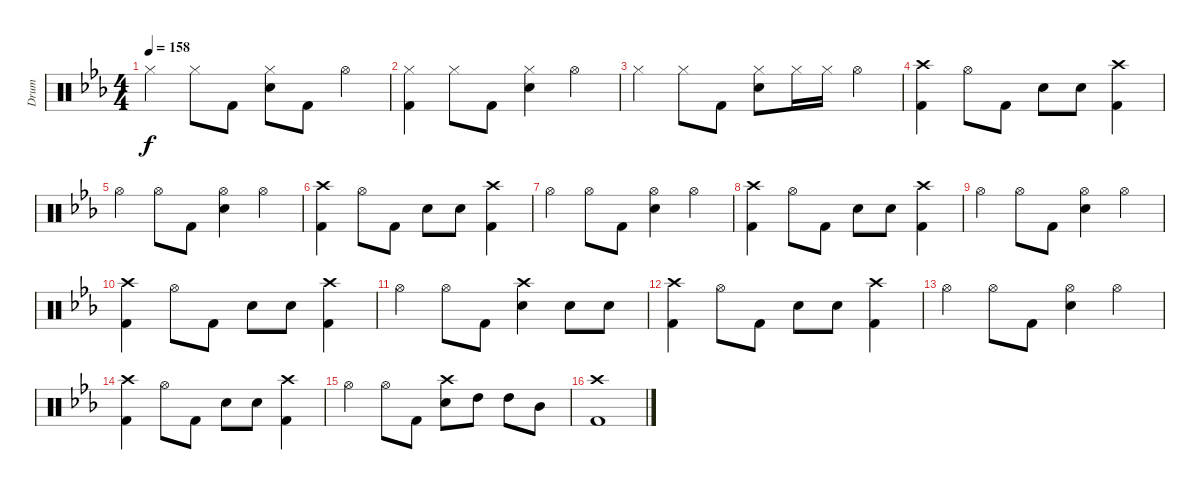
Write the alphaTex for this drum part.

\track ("Drum" "Drum") {instrument percussion}
\staff {score}
\articulation defaults
\ts (4 4)
\tempo 158
\clef neutral
\ks eb "Hi-Hat (closed)".4{dy f} "Hi-Hat (closed)".8 "Kick (hit) 2".8
("Hi-Hat (closed)" "Snare (hit) 2").8 "Kick (hit) 2".8 "Hi-Hat (open)".4 |
("Hi-Hat (closed)" "Kick (hit) 2").4 "Hi-Hat (closed)".8 "Kick (hit) 2".8 ("Hi-Hat (closed)" "Snare (hit) 2").4 "Hi-Hat (open)".4 |
"Hi-Hat (closed)".4 "Hi-Hat (closed)".8 "Kick (hit) 2".8 ("Hi-Hat (closed)" "Snare (hit) 2").8 "Hi-Hat (closed)".16 "Hi-Hat (closed)".16 "Hi-Hat (open)".4 |
("Crash high (hit)" "Kick (hit) 2").4 "Hi-Hat (open)".8 "Kick (hit) 2".8 "Snare (hit) 2".8 "Snare (hit) 2".8 ("Crash high (hit)" "Kick (hit) 2").4 |
"Hi-Hat (open)".4 "Hi-Hat (open)".8 "Kick (hit) 2".8 ("Hi-Hat (open)" "Snare (hit) 2").4 "Hi-Hat (open)".4 |
("Crash high (hit)" "Kick (hit) 2").4 "Hi-Hat (open)".8 "Kick (hit) 2".8 "Snare (hit) 2".8 "Snare (hit) 2".8 ("Crash high (hit)" "Kick (hit) 2").4 |
"Hi-Hat (open)".4 "Hi-Hat (open)".8 "Kick (hit) 2".8 ("Hi-Hat (open)" "Snare (hit) 2").4 "Hi-Hat (open)".4 |
("Crash high (hit)" "Kick (hit) 2").4 "Hi-Hat (open)".8 "Kick (hit) 2".8 "Snare (hit) 2".8 "Snare (hit) 2".8 ("Crash high (hit)" "Kick (hit) 2").4 |
"Hi-Hat (open)".4 "Hi-Hat (open)".8 "Kick (hit) 2".8 ("Hi-Hat (open)" "Snare (hit) 2").4 "Hi-Hat (open)".4 |
("Crash high (hit)" "Kick (hit) 2").4 "Hi-Hat (open)".8 "Kick (hit) 2".8 "Snare (hit) 2".8 "Snare (hit) 2".8 ("Crash high (hit)" "Kick (hit) 2").4 |
"Hi-Hat (open)".4 "Hi-Hat (open)".8 "Kick (hit) 2".8 ("Crash high (hit)" "Snare (hit) 2").4 "Snare (hit) 2".8 "Snare (hit) 2".8 |
("Crash high (hit)" "Kick (hit) 2").4 "Hi-Hat (open)".8 "Kick (hit) 2".8 "Snare (hit) 2".8 "Snare (hit) 2".8 ("Crash high (hit)" "Kick (hit) 2").4 |
"Hi-Hat (open)".4 "Hi-Hat (open)".8 "Kick (hit) 2".8 ("Hi-Hat (open)" "Snare (hit) 2").4 "Hi-Hat (open)".4 |
("Crash high (hit)" "Kick (hit) 2").4 "Hi-Hat (open)".8 "Kick (hit) 2".8 "Snare (hit) 2".8 "Snare (hit) 2".8 ("Crash high (hit)" "Kick (hit) 2").4 |
"Hi-Hat (open)".4 "Hi-Hat (open)".8 "Kick (hit) 2".8 ("Crash high (hit)" "Snare (hit) 2").8 "High Tom (hit)".8 "High Tom (hit)".8 "Mid Tom (hit)".8 |
("Crash high (hit)" "Kick (hit) 2").1
